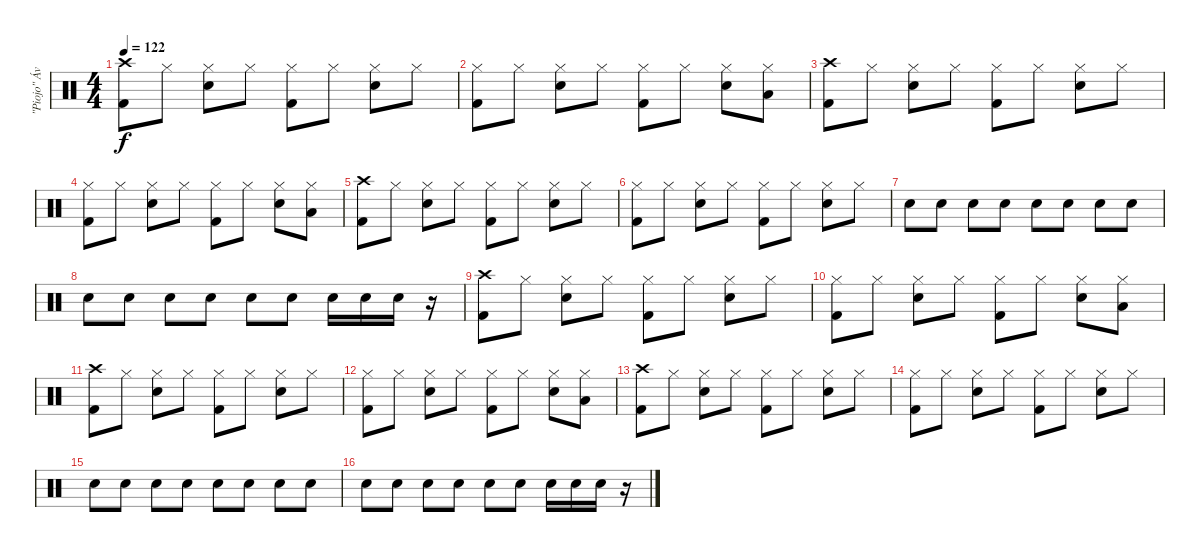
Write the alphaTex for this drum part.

\track ("\"Piojo\" Ávalos" "\"Piojo\" Áv") {instrument percussion}
\staff {score}
\articulation defaults
\ts (4 4)
\tempo 122
\clef neutral
\ks c
("Kick (hit) 2" "Crash high (hit)").8{dy f} "Hi-Hat (closed)".8 ("Snare (hit) 2" "Hi-Hat (closed)").8 "Hi-Hat (closed)".8 ("Kick (hit) 2" "Hi-Hat (closed)").8 "Hi-Hat (closed)".8 ("Snare (hit) 2" "Hi-Hat (closed)").8 "Hi-Hat (closed)".8 |
("Kick (hit) 2" "Hi-Hat (closed)").8 "Hi-Hat (closed)".8 ("Snare (hit) 2" "Hi-Hat (closed)").8 "Hi-Hat (closed)".8 ("Kick (hit) 2" "Hi-Hat (closed)").8 "Hi-Hat (closed)".8 ("Snare (hit) 2" "Hi-Hat (closed)").8 ("Low Tom (hit)" "Hi-Hat (closed)").8 |
("Kick (hit) 2" "Crash high (hit)").8 "Hi-Hat (closed)".8 ("Snare (hit) 2" "Hi-Hat (closed)").8 "Hi-Hat (closed)".8 ("Kick (hit) 2" "Hi-Hat (closed)").8 "Hi-Hat (closed)".8 ("Snare (hit) 2" "Hi-Hat (closed)").8 "Hi-Hat (closed)".8 |
("Kick (hit) 2" "Hi-Hat (closed)").8 "Hi-Hat (closed)".8 ("Snare (hit) 2" "Hi-Hat (closed)").8 "Hi-Hat (closed)".8 ("Kick (hit) 2" "Hi-Hat (closed)").8 "Hi-Hat (closed)".8 ("Snare (hit) 2" "Hi-Hat (closed)").8 ("Low Tom (hit)" "Hi-Hat (closed)").8 |
("Kick (hit) 2" "Crash high (hit)").8 "Hi-Hat (closed)".8 ("Snare (hit) 2" "Hi-Hat (closed)").8 "Hi-Hat (closed)".8 ("Kick (hit) 2" "Hi-Hat (closed)").8 "Hi-Hat (closed)".8 ("Snare (hit) 2" "Hi-Hat (closed)").8 "Hi-Hat (closed)".8 |
("Kick (hit) 2" "Hi-Hat (closed)").8 "Hi-Hat (closed)".8 ("Snare (hit) 2" "Hi-Hat (closed)").8 "Hi-Hat (closed)".8 ("Kick (hit) 2" "Hi-Hat (closed)").8 "Hi-Hat (closed)".8 ("Snare (hit) 2" "Hi-Hat (closed)").8 "Hi-Hat (closed)".8 |
"Snare (hit) 2".8 "Snare (hit) 2".8 "Snare (hit) 2".8 "Snare (hit) 2".8 "Snare (hit) 2".8 "Snare (hit) 2".8 "Snare (hit) 2".8 "Snare (hit) 2".8 |
"Snare (hit) 2".8 "Snare (hit) 2".8 "Snare (hit) 2".8 "Snare (hit) 2".8 "Snare (hit) 2".8 "Snare (hit) 2".8 "Snare (hit) 2".16 "Snare (hit) 2".16 "Snare (hit) 2".16 r.16 |
("Kick (hit) 2" "Crash high (hit)").8 "Hi-Hat (closed)".8 ("Snare (hit) 2" "Hi-Hat (closed)").8 "Hi-Hat (closed)".8 ("Kick (hit) 2" "Hi-Hat (closed)").8 "Hi-Hat (closed)".8 ("Snare (hit) 2" "Hi-Hat (closed)").8 "Hi-Hat (closed)".8 |
("Kick (hit) 2" "Hi-Hat (closed)").8 "Hi-Hat (closed)".8 ("Snare (hit) 2" "Hi-Hat (closed)").8 "Hi-Hat (closed)".8 ("Kick (hit) 2" "Hi-Hat (closed)").8 "Hi-Hat (closed)".8 ("Snare (hit) 2" "Hi-Hat (closed)").8 ("Low Tom (hit)" "Hi-Hat (closed)").8 |
("Kick (hit) 2" "Crash high (hit)").8 "Hi-Hat (closed)".8 ("Snare (hit) 2" "Hi-Hat (closed)").8 "Hi-Hat (closed)".8 ("Kick (hit) 2" "Hi-Hat (closed)").8 "Hi-Hat (closed)".8 ("Snare (hit) 2" "Hi-Hat (closed)").8 "Hi-Hat (closed)".8 |
("Kick (hit) 2" "Hi-Hat (closed)").8 "Hi-Hat (closed)".8 ("Snare (hit) 2" "Hi-Hat (closed)").8 "Hi-Hat (closed)".8 ("Kick (hit) 2" "Hi-Hat (closed)").8 "Hi-Hat (closed)".8 ("Snare (hit) 2" "Hi-Hat (closed)").8 ("Low Tom (hit)" "Hi-Hat (closed)").8 |
("Kick (hit) 2" "Crash high (hit)").8 "Hi-Hat (closed)".8 ("Snare (hit) 2" "Hi-Hat (closed)").8 "Hi-Hat (closed)".8 ("Kick (hit) 2" "Hi-Hat (closed)").8 "Hi-Hat (closed)".8 ("Snare (hit) 2" "Hi-Hat (closed)").8 "Hi-Hat (closed)".8 |
("Kick (hit) 2" "Hi-Hat (closed)").8 "Hi-Hat (closed)".8 ("Snare (hit) 2" "Hi-Hat (closed)").8 "Hi-Hat (closed)".8 ("Kick (hit) 2" "Hi-Hat (closed)").8 "Hi-Hat (closed)".8 ("Snare (hit) 2" "Hi-Hat (closed)").8 "Hi-Hat (closed)".8 |
"Snare (hit) 2".8 "Snare (hit) 2".8 "Snare (hit) 2".8 "Snare (hit) 2".8 "Snare (hit) 2".8 "Snare (hit) 2".8 "Snare (hit) 2".8 "Snare (hit) 2".8 |
"Snare (hit) 2".8 "Snare (hit) 2".8 "Snare (hit) 2".8 "Snare (hit) 2".8 "Snare (hit) 2".8 "Snare (hit) 2".8 "Snare (hit) 2".16 "Snare (hit) 2".16 "Snare (hit) 2".16 r.16
